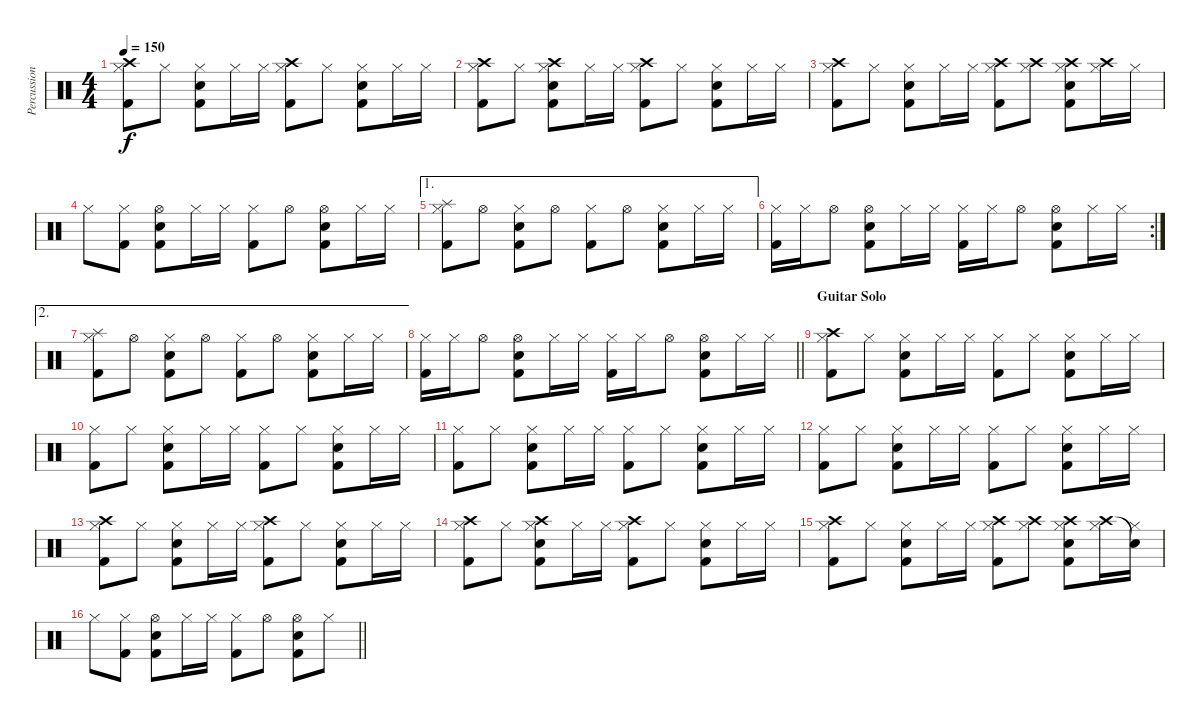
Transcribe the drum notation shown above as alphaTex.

\track ("Percussion" "Percussion") {instrument percussion}
\staff {score}
\articulation defaults
\ts (4 4)
\tempo 150
\clef neutral
\ks c
("Hi-Hat (closed)" "Crash high (hit)" "Kick (hit) 2").8{dy f} "Hi-Hat (closed)".8 ("Hi-Hat (closed)" "Snare (hit) 2" "Kick (hit) 2").8 "Hi-Hat (closed)".16 "Hi-Hat (closed)".16 ("Hi-Hat (closed)" "Crash high (hit)" "Kick (hit) 2").8 "Hi-Hat (closed)".8 ("Hi-Hat (closed)" "Snare (hit) 2" "Kick (hit) 2").8 "Hi-Hat (closed)".16 "Hi-Hat (closed)".16 |
("Hi-Hat (closed)" "Crash high (hit)" "Kick (hit) 2").8 "Hi-Hat (closed)".8 ("Hi-Hat (closed)" "Snare (hit) 2" "Crash high (hit)" "Kick (hit) 2").8 "Hi-Hat (closed)".16 "Hi-Hat (closed)".16 ("Hi-Hat (closed)" "Crash high (hit)" "Kick (hit) 2").8 "Hi-Hat (closed)".8 ("Hi-Hat (closed)" "Snare (hit) 2" "Kick (hit) 2").8 "Hi-Hat (closed)".16 "Hi-Hat (closed)".16 |
("Hi-Hat (closed)" "Crash high (hit)" "Kick (hit) 2").8 "Hi-Hat (closed)".8 ("Hi-Hat (closed)" "Snare (hit) 2" "Kick (hit) 2").8 "Hi-Hat (closed)".16 "Hi-Hat (closed)".16 ("Hi-Hat (closed)" "Crash high (hit)" "Kick (hit) 2").8 ("Hi-Hat (closed)" "Crash high (hit)").8 ("Hi-Hat (closed)" "Snare (hit) 2" "Crash high (hit)" "Kick (hit) 2").8 ("Hi-Hat (closed)" "Crash high (hit)").16 "Hi-Hat (closed)".16 |
"Hi-Hat (closed)".8 ("Hi-Hat (closed)" "Kick (hit) 2").8 ("Hi-Hat (open)" "Snare (hit) 2" "Kick (hit) 2").8 "Hi-Hat (closed)".16 "Hi-Hat (closed)".16 ("Hi-Hat (closed)" "Kick (hit) 2").8 "Hi-Hat (open)".8 ("Hi-Hat (open)" "Snare (hit) 2" "Kick (hit) 2").8 "Hi-Hat (closed)".16 "Hi-Hat (closed)".16 |
\ae 1
("Hi-Hat (closed)" "Splash (hit)" "Kick (hit) 2").8 "Hi-Hat (open)".8 ("Hi-Hat (closed)" "Snare (hit) 2" "Kick (hit) 2").8 "Hi-Hat (open)".8 ("Hi-Hat (closed)" "Kick (hit) 2").8 "Hi-Hat (open)".8 ("Hi-Hat (closed)" "Snare (hit) 2" "Kick (hit) 2").8 "Hi-Hat (closed)".16 "Hi-Hat (closed)".16 |
\rc 2
("Hi-Hat (closed)" "Kick (hit) 2").16 "Hi-Hat (closed)".16 "Hi-Hat (open)".8 ("Hi-Hat (open)" "Snare (hit) 2" "Kick (hit) 2").8 "Hi-Hat (closed)".16 "Hi-Hat (closed)".16 ("Hi-Hat (closed)" "Kick (hit) 2").16 "Hi-Hat (closed)".16 "Hi-Hat (open)".8 ("Hi-Hat (open)" "Snare (hit) 2" "Kick (hit) 2").8 "Hi-Hat (closed)".16 "Hi-Hat (closed)".16 |
\ae 2
("Hi-Hat (closed)" "Splash (hit)" "Kick (hit) 2").8 "Hi-Hat (open)".8 ("Hi-Hat (closed)" "Snare (hit) 2" "Kick (hit) 2").8 "Hi-Hat (open)".8 ("Hi-Hat (closed)" "Kick (hit) 2").8 "Hi-Hat (open)".8 ("Hi-Hat (closed)" "Snare (hit) 2" "Kick (hit) 2").8 "Hi-Hat (closed)".16 "Hi-Hat (closed)".16 |
\barLineRight lightlight
("Hi-Hat (closed)" "Kick (hit) 2").16 "Hi-Hat (closed)".16 "Hi-Hat (open)".8 ("Hi-Hat (open)" "Snare (hit) 2" "Kick (hit) 2").8 "Hi-Hat (closed)".16 "Hi-Hat (closed)".16 ("Hi-Hat (closed)" "Kick (hit) 2").16 "Hi-Hat (closed)".16 "Hi-Hat (open)".8 ("Hi-Hat (open)" "Snare (hit) 2" "Kick (hit) 2").8 "Hi-Hat (closed)".16 "Hi-Hat (closed)".16 |
\section ("" "Guitar Solo")
("Hi-Hat (closed)" "Crash high (hit)" "Kick (hit) 2").8 "Hi-Hat (closed)".8 ("Hi-Hat (closed)" "Snare (hit) 2" "Kick (hit) 2").8 "Hi-Hat (closed)".16 "Hi-Hat (closed)".16 ("Hi-Hat (closed)" "Kick (hit) 2").8 "Hi-Hat (closed)".8 ("Hi-Hat (closed)" "Snare (hit) 2" "Kick (hit) 2").8 "Hi-Hat (closed)".16 "Hi-Hat (closed)".16 |
("Hi-Hat (closed)" "Kick (hit) 2").8 "Hi-Hat (closed)".8 ("Hi-Hat (closed)" "Snare (hit) 2" "Kick (hit) 2").8 "Hi-Hat (closed)".16 "Hi-Hat (closed)".16 ("Hi-Hat (closed)" "Kick (hit) 2").8 "Hi-Hat (closed)".8 ("Hi-Hat (closed)" "Snare (hit) 2" "Kick (hit) 2").8 "Hi-Hat (closed)".16 "Hi-Hat (closed)".16 |
("Hi-Hat (closed)" "Kick (hit) 2").8 "Hi-Hat (closed)".8 ("Hi-Hat (closed)" "Snare (hit) 2" "Kick (hit) 2").8 "Hi-Hat (closed)".16 "Hi-Hat (closed)".16 ("Hi-Hat (closed)" "Kick (hit) 2").8 "Hi-Hat (closed)".8 ("Hi-Hat (closed)" "Snare (hit) 2" "Kick (hit) 2").8 "Hi-Hat (closed)".16 "Hi-Hat (closed)".16 |
("Hi-Hat (closed)" "Kick (hit) 2").8 "Hi-Hat (closed)".8 ("Hi-Hat (closed)" "Snare (hit) 2" "Kick (hit) 2").8 "Hi-Hat (closed)".16 "Hi-Hat (closed)".16 ("Hi-Hat (closed)" "Kick (hit) 2").8 "Hi-Hat (closed)".8 ("Hi-Hat (closed)" "Snare (hit) 2" "Kick (hit) 2").8 "Hi-Hat (closed)".16 "Hi-Hat (closed)".16 |
("Hi-Hat (closed)" "Crash high (hit)" "Kick (hit) 2").8 "Hi-Hat (closed)".8 ("Hi-Hat (closed)" "Snare (hit) 2" "Kick (hit) 2").8 "Hi-Hat (closed)".16 "Hi-Hat (closed)".16 ("Hi-Hat (closed)" "Crash high (hit)" "Kick (hit) 2").8 "Hi-Hat (closed)".8 ("Hi-Hat (closed)" "Snare (hit) 2" "Kick (hit) 2").8 "Hi-Hat (closed)".16 "Hi-Hat (closed)".16 |
("Hi-Hat (closed)" "Crash high (hit)" "Kick (hit) 2").8 "Hi-Hat (closed)".8 ("Hi-Hat (closed)" "Snare (hit) 2" "Crash high (hit)" "Kick (hit) 2").8 "Hi-Hat (closed)".16 "Hi-Hat (closed)".16 ("Hi-Hat (closed)" "Crash high (hit)" "Kick (hit) 2").8 "Hi-Hat (closed)".8 ("Hi-Hat (closed)" "Snare (hit) 2" "Kick (hit) 2").8 "Hi-Hat (closed)".16 "Hi-Hat (closed)".16 |
("Hi-Hat (closed)" "Crash high (hit)" "Kick (hit) 2").8 "Hi-Hat (closed)".8 ("Hi-Hat (closed)" "Snare (hit) 2" "Kick (hit) 2").8 "Hi-Hat (closed)".16 "Hi-Hat (closed)".16 ("Hi-Hat (closed)" "Crash high (hit)" "Kick (hit) 2").8 ("Hi-Hat (closed)" "Crash high (hit)").8 ("Hi-Hat (closed)" "Snare (hit) 2" "Crash high (hit)" "Kick (hit) 2").8 ("Hi-Hat (closed)" "Crash high (hit)").16 ("Hi-Hat (closed)" "Snare (hit)"{t}).16 |
\barLineRight lightlight "Hi-Hat (closed)".8
("Hi-Hat (closed)" "Kick (hit) 2").8 ("Hi-Hat (open)" "Snare (hit) 2" "Kick (hit) 2").8 "Hi-Hat (closed)".16 "Hi-Hat (closed)".16 ("Hi-Hat (closed)" "Kick (hit) 2").8 "Hi-Hat (open)".8 ("Hi-Hat (open)" "Snare (hit) 2" "Kick (hit) 2").8 "Hi-Hat (closed)".8
